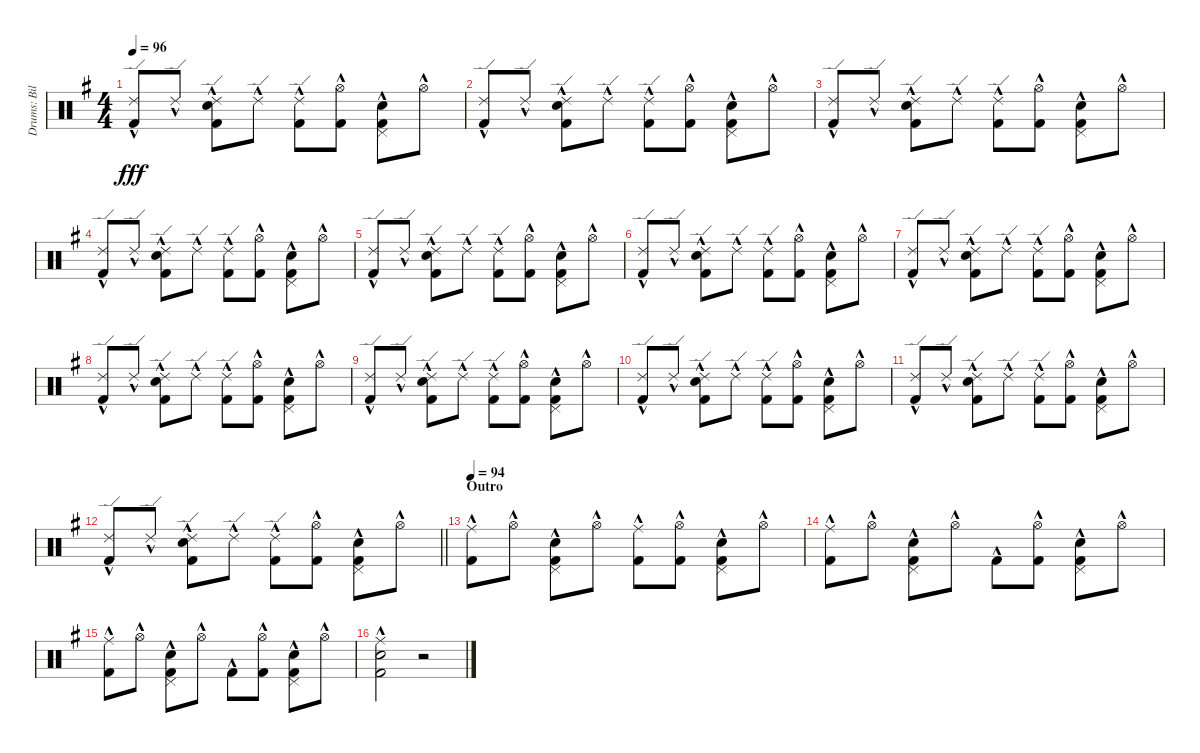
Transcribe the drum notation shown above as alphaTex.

\track ("Drums: Bill" "Drums: Bil") {instrument percussion}
\staff {score}
\articulation defaults
\ts (4 4)
\tempo 96
\clef neutral
\ks g
("Ride (edge) 2"{hac} "Kick (hit) 2"{hac}).8{dy fff} "Ride (edge) 2"{hac}.8 ("Ride (edge) 2"{hac} "Snare (hit) 2"{hac} "Kick (hit) 2"{hac}).8 "Ride (edge) 2"{hac}.8 ("Ride (edge) 2"{hac} "Kick (hit) 2"{hac}).8 ("Hi-Hat (open)"{hac} "Kick (hit) 2"{hac}).8 ("Pedal Hi-Hat (hit)"{hac} "Snare (hit) 2"{hac} "Kick (hit) 2"{hac}).8 "Hi-Hat (open)"{hac}.8 |
("Ride (edge) 2"{hac} "Kick (hit) 2"{hac}).8 "Ride (edge) 2"{hac}.8 ("Ride (edge) 2"{hac} "Snare (hit) 2"{hac} "Kick (hit) 2"{hac}).8 "Ride (edge) 2"{hac}.8 ("Ride (edge) 2"{hac} "Kick (hit) 2"{hac}).8 ("Hi-Hat (open)"{hac} "Kick (hit) 2"{hac}).8 ("Pedal Hi-Hat (hit)"{hac} "Snare (hit) 2"{hac} "Kick (hit) 2"{hac}).8 "Hi-Hat (open)"{hac}.8 |
("Ride (edge) 2"{hac} "Kick (hit) 2"{hac}).8 "Ride (edge) 2"{hac}.8 ("Ride (edge) 2"{hac} "Snare (hit) 2"{hac} "Kick (hit) 2"{hac}).8 "Ride (edge) 2"{hac}.8 ("Ride (edge) 2"{hac} "Kick (hit) 2"{hac}).8 ("Hi-Hat (open)"{hac} "Kick (hit) 2"{hac}).8 ("Pedal Hi-Hat (hit)"{hac} "Snare (hit) 2"{hac} "Kick (hit) 2"{hac}).8 "Hi-Hat (open)"{hac}.8 |
("Ride (edge) 2"{hac} "Kick (hit) 2"{hac}).8 "Ride (edge) 2"{hac}.8 ("Ride (edge) 2"{hac} "Snare (hit) 2"{hac} "Kick (hit) 2"{hac}).8 "Ride (edge) 2"{hac}.8 ("Ride (edge) 2"{hac} "Kick (hit) 2"{hac}).8 ("Hi-Hat (open)"{hac} "Kick (hit) 2"{hac}).8 ("Pedal Hi-Hat (hit)"{hac} "Snare (hit) 2"{hac} "Kick (hit) 2"{hac}).8 "Hi-Hat (open)"{hac}.8 |
("Ride (edge) 2"{hac} "Kick (hit) 2"{hac}).8 "Ride (edge) 2"{hac}.8 ("Ride (edge) 2"{hac} "Snare (hit) 2"{hac} "Kick (hit) 2"{hac}).8 "Ride (edge) 2"{hac}.8 ("Ride (edge) 2"{hac} "Kick (hit) 2"{hac}).8 ("Hi-Hat (open)"{hac} "Kick (hit) 2"{hac}).8 ("Pedal Hi-Hat (hit)"{hac} "Snare (hit) 2"{hac} "Kick (hit) 2"{hac}).8 "Hi-Hat (open)"{hac}.8 |
("Ride (edge) 2"{hac} "Kick (hit) 2"{hac}).8 "Ride (edge) 2"{hac}.8 ("Ride (edge) 2"{hac} "Snare (hit) 2"{hac} "Kick (hit) 2"{hac}).8 "Ride (edge) 2"{hac}.8 ("Ride (edge) 2"{hac} "Kick (hit) 2"{hac}).8 ("Hi-Hat (open)"{hac} "Kick (hit) 2"{hac}).8 ("Pedal Hi-Hat (hit)"{hac} "Snare (hit) 2"{hac} "Kick (hit) 2"{hac}).8 "Hi-Hat (open)"{hac}.8 |
("Ride (edge) 2"{hac} "Kick (hit) 2"{hac}).8 "Ride (edge) 2"{hac}.8 ("Ride (edge) 2"{hac} "Snare (hit) 2"{hac} "Kick (hit) 2"{hac}).8 "Ride (edge) 2"{hac}.8 ("Ride (edge) 2"{hac} "Kick (hit) 2"{hac}).8 ("Hi-Hat (open)"{hac} "Kick (hit) 2"{hac}).8 ("Pedal Hi-Hat (hit)"{hac} "Snare (hit) 2"{hac} "Kick (hit) 2"{hac}).8 "Hi-Hat (open)"{hac}.8 |
("Ride (edge) 2"{hac} "Kick (hit) 2"{hac}).8 "Ride (edge) 2"{hac}.8 ("Ride (edge) 2"{hac} "Snare (hit) 2"{hac} "Kick (hit) 2"{hac}).8 "Ride (edge) 2"{hac}.8 ("Ride (edge) 2"{hac} "Kick (hit) 2"{hac}).8 ("Hi-Hat (open)"{hac} "Kick (hit) 2"{hac}).8 ("Pedal Hi-Hat (hit)"{hac} "Snare (hit) 2"{hac} "Kick (hit) 2"{hac}).8 "Hi-Hat (open)"{hac}.8 |
("Ride (edge) 2"{hac} "Kick (hit) 2"{hac}).8 "Ride (edge) 2"{hac}.8 ("Ride (edge) 2"{hac} "Snare (hit) 2"{hac} "Kick (hit) 2"{hac}).8 "Ride (edge) 2"{hac}.8 ("Ride (edge) 2"{hac} "Kick (hit) 2"{hac}).8 ("Hi-Hat (open)"{hac} "Kick (hit) 2"{hac}).8 ("Pedal Hi-Hat (hit)"{hac} "Snare (hit) 2"{hac} "Kick (hit) 2"{hac}).8 "Hi-Hat (open)"{hac}.8 |
("Ride (edge) 2"{hac} "Kick (hit) 2"{hac}).8 "Ride (edge) 2"{hac}.8 ("Ride (edge) 2"{hac} "Snare (hit) 2"{hac} "Kick (hit) 2"{hac}).8 "Ride (edge) 2"{hac}.8 ("Ride (edge) 2"{hac} "Kick (hit) 2"{hac}).8 ("Hi-Hat (open)"{hac} "Kick (hit) 2"{hac}).8 ("Pedal Hi-Hat (hit)"{hac} "Snare (hit) 2"{hac} "Kick (hit) 2"{hac}).8 "Hi-Hat (open)"{hac}.8 |
("Ride (edge) 2"{hac} "Kick (hit) 2"{hac}).8 "Ride (edge) 2"{hac}.8 ("Ride (edge) 2"{hac} "Snare (hit) 2"{hac} "Kick (hit) 2"{hac}).8 "Ride (edge) 2"{hac}.8 ("Ride (edge) 2"{hac} "Kick (hit) 2"{hac}).8 ("Hi-Hat (open)"{hac} "Kick (hit) 2"{hac}).8 ("Pedal Hi-Hat (hit)"{hac} "Snare (hit) 2"{hac} "Kick (hit) 2"{hac}).8 "Hi-Hat (open)"{hac}.8 |
\barLineRight lightlight
("Ride (edge) 2"{hac} "Kick (hit) 2"{hac}).8 "Ride (edge) 2"{hac}.8 ("Ride (edge) 2"{hac} "Snare (hit) 2"{hac} "Kick (hit) 2"{hac}).8 "Ride (edge) 2"{hac}.8 ("Ride (edge) 2"{hac} "Kick (hit) 2"{hac}).8 ("Hi-Hat (open)"{hac} "Kick (hit) 2"{hac}).8 ("Pedal Hi-Hat (hit)"{hac} "Snare (hit) 2"{hac} "Kick (hit) 2"{hac}).8 "Hi-Hat (open)"{hac}.8 |
\section ("" "Outro")
\tempo 98
\tempo 94
("Ride (middle)"{hac} "Kick (hit) 2"{hac}).8 "Hi-Hat (open)"{hac}.8 ("Pedal Hi-Hat (hit)"{hac} "Snare (hit) 2"{hac} "Kick (hit) 2"{hac}).8 "Hi-Hat (open)"{hac}.8 ("Ride (middle)"{hac} "Kick (hit) 2"{hac}).8 ("Hi-Hat (open)"{hac} "Kick (hit) 2"{hac}).8 ("Pedal Hi-Hat (hit)"{hac} "Snare (hit) 2"{hac} "Kick (hit) 2"{hac}).8 "Hi-Hat (open)"{hac}.8 |
("Ride (middle)"{hac} "Kick (hit) 2"{hac}).8 "Hi-Hat (open)"{hac}.8 ("Pedal Hi-Hat (hit)"{hac} "Snare (hit) 2"{hac} "Kick (hit) 2"{hac}).8 "Hi-Hat (open)"{hac}.8 "Kick (hit) 2"{hac}.8 ("Hi-Hat (open)"{hac} "Kick (hit) 2"{hac}).8 ("Pedal Hi-Hat (hit)"{hac} "Snare (hit) 2"{hac} "Kick (hit) 2"{hac}).8 "Hi-Hat (open)"{hac}.8 |
("Ride (middle)"{hac} "Kick (hit) 2"{hac}).8 "Hi-Hat (open)"{hac}.8 ("Pedal Hi-Hat (hit)"{hac} "Snare (hit) 2"{hac} "Kick (hit) 2"{hac}).8 "Hi-Hat (open)"{hac}.8 "Kick (hit) 2"{hac}.8 ("Hi-Hat (open)"{hac} "Kick (hit) 2"{hac}).8 ("Pedal Hi-Hat (hit)"{hac} "Snare (hit) 2"{hac} "Kick (hit) 2"{hac}).8 "Hi-Hat (open)"{hac}.8 |
("Ride (middle)"{hac} "Snare (hit) 2"{hac} "Kick (hit) 2"{hac}).2 r.2
